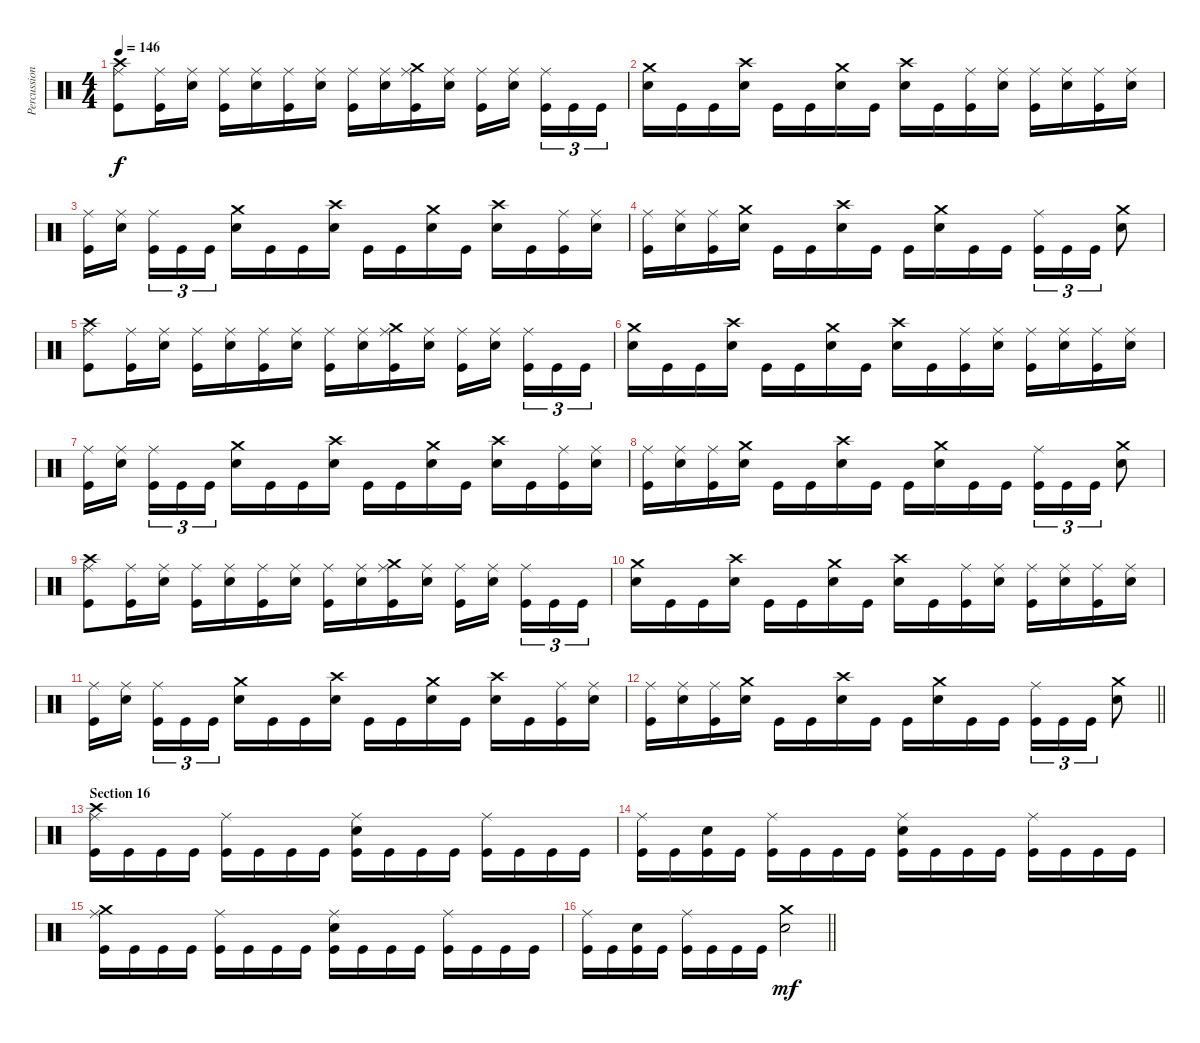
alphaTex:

\track ("Percussion" "Percussion") {instrument percussion}
\staff {score}
\articulation defaults
\ts (4 4)
\tempo 146
\clef neutral
\ks c
("Crash high (hit)" "Ride (middle)" "Kick (hit)").8{dy f} ("Ride (middle)" "Kick (hit)").16 ("Ride (middle)" "Electric Snare (hit)").16 ("Ride (middle)" "Kick (hit)").16 ("Ride (middle)" "Electric Snare (hit)").16 ("Ride (middle)" "Kick (hit)").16 ("Ride (middle)" "Electric Snare (hit)").16 ("Ride (middle)" "Kick (hit)").16 ("Ride (middle)" "Electric Snare (hit)").16 ("Crash medium (hit)" "Ride (middle)" "Kick (hit)").16 ("Ride (middle)" "Electric Snare (hit)").16 ("Ride (middle)" "Kick (hit)").16 ("Ride (middle)" "Electric Snare (hit)").16{beam splitsecondary} ("Ride (middle)" "Kick (hit)").16{tu (3 2)} "Kick (hit)".16{tu (3 2)} "Kick (hit)".16{tu (3 2)} |
("Crash medium (hit)" "Electric Snare (hit)").16 "Kick (hit)".16 "Kick (hit)".16 ("Crash high (hit)" "Electric Snare (hit)").16 "Kick (hit)".16 "Kick (hit)".16 ("Crash medium (hit)" "Electric Snare (hit)").16 "Kick (hit)".16 ("Crash high (hit)" "Electric Snare (hit)").16 "Kick (hit)".16 ("Ride (middle)" "Kick (hit)").16 ("Ride (middle)" "Electric Snare (hit)").16 ("Ride (middle)" "Kick (hit)").16 ("Ride (middle)" "Electric Snare (hit)").16 ("Ride (middle)" "Kick (hit)").16 ("Ride (middle)" "Electric Snare (hit)").16 |
("Ride (middle)" "Kick (hit)").16 ("Ride (middle)" "Electric Snare (hit)").16{beam splitsecondary} ("Ride (middle)" "Kick (hit)").16{tu (3 2)} "Kick (hit)".16{tu (3 2)} "Kick (hit)".16{tu (3 2)} ("Crash medium (hit)" "Electric Snare (hit)").16 "Kick (hit)".16 "Kick (hit)".16 ("Crash high (hit)" "Electric Snare (hit)").16 "Kick (hit)".16 "Kick (hit)".16 ("Crash medium (hit)" "Electric Snare (hit)").16 "Kick (hit)".16 ("Crash high (hit)" "Electric Snare (hit)").16 "Kick (hit)".16 ("Ride (middle)" "Kick (hit)").16 ("Ride (middle)" "Electric Snare (hit)").16 |
("Ride (middle)" "Kick (hit)").16 ("Ride (middle)" "Electric Snare (hit)").16 ("Ride (middle)" "Kick (hit)").16 ("Crash medium (hit)" "Electric Snare (hit)").16 "Kick (hit)".16 "Kick (hit)".16 ("Crash high (hit)" "Electric Snare (hit)").16 "Kick (hit)".16 "Kick (hit)".16 ("Crash medium (hit)" "Electric Snare (hit)").16 "Kick (hit)".16 "Kick (hit)".16 ("Ride (middle)" "Kick (hit)").16{tu (3 2)} "Kick (hit)".16{tu (3 2)} "Kick (hit)".16{tu (3 2)} ("Crash medium (hit)" "Electric Snare (hit)").8 |
("Crash high (hit)" "Ride (middle)" "Kick (hit)").8 ("Ride (middle)" "Kick (hit)").16 ("Ride (middle)" "Electric Snare (hit)").16 ("Ride (middle)" "Kick (hit)").16 ("Ride (middle)" "Electric Snare (hit)").16 ("Ride (middle)" "Kick (hit)").16 ("Ride (middle)" "Electric Snare (hit)").16 ("Ride (middle)" "Kick (hit)").16 ("Ride (middle)" "Electric Snare (hit)").16 ("Crash medium (hit)" "Ride (middle)" "Kick (hit)").16 ("Ride (middle)" "Electric Snare (hit)").16 ("Ride (middle)" "Kick (hit)").16 ("Ride (middle)" "Electric Snare (hit)").16{beam splitsecondary} ("Ride (middle)" "Kick (hit)").16{tu (3 2)} "Kick (hit)".16{tu (3 2)} "Kick (hit)".16{tu (3 2)} |
("Crash medium (hit)" "Electric Snare (hit)").16 "Kick (hit)".16 "Kick (hit)".16 ("Crash high (hit)" "Electric Snare (hit)").16 "Kick (hit)".16 "Kick (hit)".16 ("Crash medium (hit)" "Electric Snare (hit)").16 "Kick (hit)".16 ("Crash high (hit)" "Electric Snare (hit)").16 "Kick (hit)".16 ("Ride (middle)" "Kick (hit)").16 ("Ride (middle)" "Electric Snare (hit)").16 ("Ride (middle)" "Kick (hit)").16 ("Ride (middle)" "Electric Snare (hit)").16 ("Ride (middle)" "Kick (hit)").16 ("Ride (middle)" "Electric Snare (hit)").16 |
("Ride (middle)" "Kick (hit)").16 ("Ride (middle)" "Electric Snare (hit)").16{beam splitsecondary} ("Ride (middle)" "Kick (hit)").16{tu (3 2)} "Kick (hit)".16{tu (3 2)} "Kick (hit)".16{tu (3 2)} ("Crash medium (hit)" "Electric Snare (hit)").16 "Kick (hit)".16 "Kick (hit)".16 ("Crash high (hit)" "Electric Snare (hit)").16 "Kick (hit)".16 "Kick (hit)".16 ("Crash medium (hit)" "Electric Snare (hit)").16 "Kick (hit)".16 ("Crash high (hit)" "Electric Snare (hit)").16 "Kick (hit)".16 ("Ride (middle)" "Kick (hit)").16 ("Ride (middle)" "Electric Snare (hit)").16 |
("Ride (middle)" "Kick (hit)").16 ("Ride (middle)" "Electric Snare (hit)").16 ("Ride (middle)" "Kick (hit)").16 ("Crash medium (hit)" "Electric Snare (hit)").16 "Kick (hit)".16 "Kick (hit)".16 ("Crash high (hit)" "Electric Snare (hit)").16 "Kick (hit)".16 "Kick (hit)".16 ("Crash medium (hit)" "Electric Snare (hit)").16 "Kick (hit)".16 "Kick (hit)".16 ("Ride (middle)" "Kick (hit)").16{tu (3 2)} "Kick (hit)".16{tu (3 2)} "Kick (hit)".16{tu (3 2)} ("Crash medium (hit)" "Electric Snare (hit)").8 |
("Crash high (hit)" "Ride (middle)" "Kick (hit)").8 ("Ride (middle)" "Kick (hit)").16 ("Ride (middle)" "Electric Snare (hit)").16 ("Ride (middle)" "Kick (hit)").16 ("Ride (middle)" "Electric Snare (hit)").16 ("Ride (middle)" "Kick (hit)").16 ("Ride (middle)" "Electric Snare (hit)").16 ("Ride (middle)" "Kick (hit)").16 ("Ride (middle)" "Electric Snare (hit)").16 ("Crash medium (hit)" "Ride (middle)" "Kick (hit)").16 ("Ride (middle)" "Electric Snare (hit)").16 ("Ride (middle)" "Kick (hit)").16 ("Ride (middle)" "Electric Snare (hit)").16{beam splitsecondary} ("Ride (middle)" "Kick (hit)").16{tu (3 2)} "Kick (hit)".16{tu (3 2)} "Kick (hit)".16{tu (3 2)} |
("Crash medium (hit)" "Electric Snare (hit)").16 "Kick (hit)".16 "Kick (hit)".16 ("Crash high (hit)" "Electric Snare (hit)").16 "Kick (hit)".16 "Kick (hit)".16 ("Crash medium (hit)" "Electric Snare (hit)").16 "Kick (hit)".16 ("Crash high (hit)" "Electric Snare (hit)").16 "Kick (hit)".16 ("Ride (middle)" "Kick (hit)").16 ("Ride (middle)" "Electric Snare (hit)").16 ("Ride (middle)" "Kick (hit)").16 ("Ride (middle)" "Electric Snare (hit)").16 ("Ride (middle)" "Kick (hit)").16 ("Ride (middle)" "Electric Snare (hit)").16 |
("Ride (middle)" "Kick (hit)").16 ("Ride (middle)" "Electric Snare (hit)").16{beam splitsecondary} ("Ride (middle)" "Kick (hit)").16{tu (3 2)} "Kick (hit)".16{tu (3 2)} "Kick (hit)".16{tu (3 2)} ("Crash medium (hit)" "Electric Snare (hit)").16 "Kick (hit)".16 "Kick (hit)".16 ("Crash high (hit)" "Electric Snare (hit)").16 "Kick (hit)".16 "Kick (hit)".16 ("Crash medium (hit)" "Electric Snare (hit)").16 "Kick (hit)".16 ("Crash high (hit)" "Electric Snare (hit)").16 "Kick (hit)".16 ("Ride (middle)" "Kick (hit)").16 ("Ride (middle)" "Electric Snare (hit)").16 |
\barLineRight lightlight
("Ride (middle)" "Kick (hit)").16 ("Ride (middle)" "Electric Snare (hit)").16 ("Ride (middle)" "Kick (hit)").16 ("Crash medium (hit)" "Electric Snare (hit)").16 "Kick (hit)".16 "Kick (hit)".16 ("Crash high (hit)" "Electric Snare (hit)").16 "Kick (hit)".16 "Kick (hit)".16 ("Crash medium (hit)" "Electric Snare (hit)").16 "Kick (hit)".16 "Kick (hit)".16 ("Ride (middle)" "Kick (hit)").16{tu (3 2)} "Kick (hit)".16{tu (3 2)} "Kick (hit)".16{tu (3 2)} ("Crash medium (hit)" "Electric Snare (hit)").8 |
\section ("" "Section 16")
("Crash high (hit)" "Ride (middle)" "Kick (hit)").16 "Kick (hit)".16 "Kick (hit)".16 "Kick (hit)".16 ("Ride (middle)" "Kick (hit)").16 "Kick (hit)".16 "Kick (hit)".16 "Kick (hit)".16 ("Ride (middle)" "Electric Snare (hit)" "Kick (hit)").16 "Kick (hit)".16 "Kick (hit)".16 "Kick (hit)".16 ("Ride (middle)" "Kick (hit)").16 "Kick (hit)".16 "Kick (hit)".16 "Kick (hit)".16 |
("Ride (middle)" "Kick (hit)").16 "Kick (hit)".16 ("Electric Snare (hit)" "Kick (hit)").16 "Kick (hit)".16 ("Ride (middle)" "Kick (hit)").16 "Kick (hit)".16 "Kick (hit)".16 "Kick (hit)".16 ("Ride (middle)" "Electric Snare (hit)" "Kick (hit)").16 "Kick (hit)".16 "Kick (hit)".16 "Kick (hit)".16 ("Ride (middle)" "Kick (hit)").16 "Kick (hit)".16 "Kick (hit)".16 "Kick (hit)".16 |
("Crash medium (hit)" "Ride (middle)" "Kick (hit)").16 "Kick (hit)".16 "Kick (hit)".16 "Kick (hit)".16 ("Ride (middle)" "Kick (hit)").16 "Kick (hit)".16 "Kick (hit)".16 "Kick (hit)".16 ("Ride (middle)" "Electric Snare (hit)" "Kick (hit)").16 "Kick (hit)".16 "Kick (hit)".16 "Kick (hit)".16 ("Ride (middle)" "Kick (hit)").16 "Kick (hit)".16 "Kick (hit)".16 "Kick (hit)".16 |
\barLineRight lightlight
("Ride (middle)" "Kick (hit)").16 "Kick (hit)".16 ("Electric Snare (hit)" "Kick (hit)").16 "Kick (hit)".16 ("Ride (middle)" "Kick (hit)").16 "Kick (hit)".16 "Kick (hit)".16 "Kick (hit)".16 ("Crash medium (hit)" "Electric Snare (hit)").2{dy mf}
